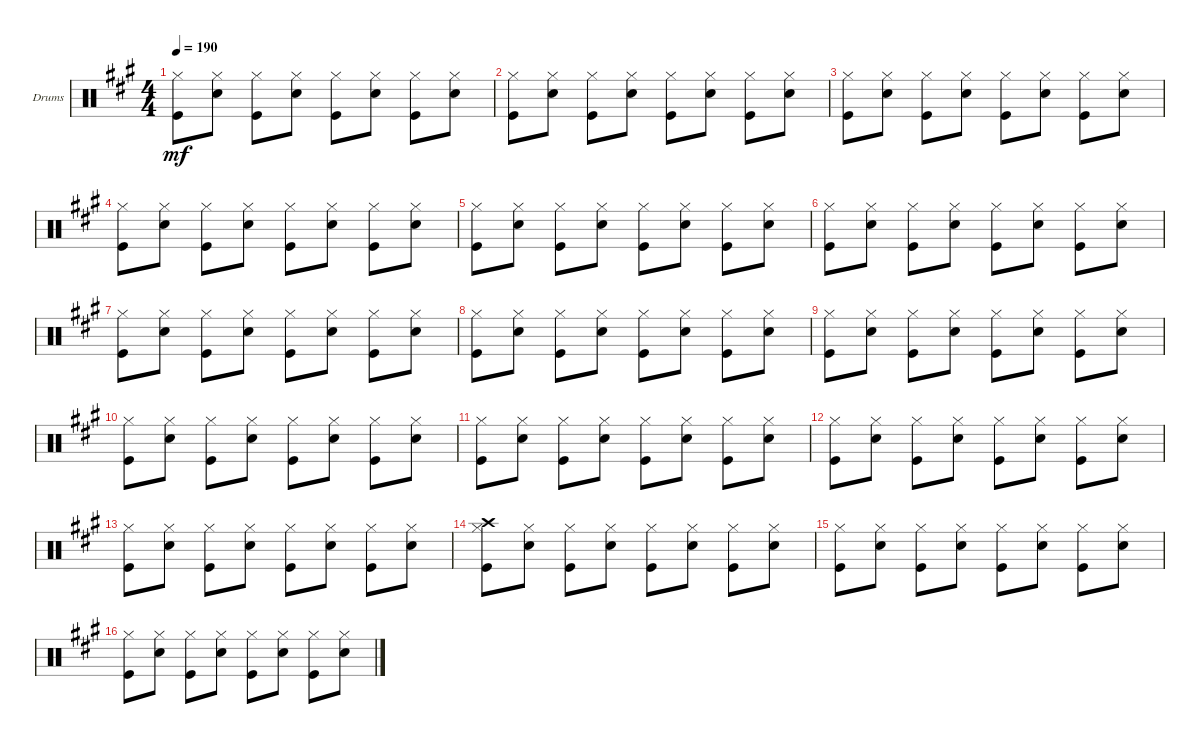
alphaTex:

\defaultSystemsLayout 4
\bracketExtendMode groupsimilarinstruments
\firstSystemTrackNameOrientation horizontal
\otherSystemsTrackNameOrientation horizontal
\track ("Drumkit" "Drums") {instrument percussion}
\staff {score}
\articulation defaults
\ts (4 4)
\tempo 190
\clef neutral
\ks f#minor
("Kick (hit)" "Hi-Hat (closed)").8{dy mf} ("Snare (hit) 2" "Hi-Hat (closed)").8 ("Kick (hit)" "Hi-Hat (closed)").8 ("Snare (hit) 2" "Hi-Hat (closed)").8 ("Kick (hit)" "Hi-Hat (closed)").8 ("Snare (hit) 2" "Hi-Hat (closed)").8 ("Kick (hit)" "Hi-Hat (closed)").8 ("Snare (hit) 2" "Hi-Hat (closed)").8 |
("Kick (hit)" "Hi-Hat (closed)").8 ("Snare (hit) 2" "Hi-Hat (closed)").8 ("Kick (hit)" "Hi-Hat (closed)").8 ("Snare (hit) 2" "Hi-Hat (closed)").8 ("Kick (hit)" "Hi-Hat (closed)").8 ("Snare (hit) 2" "Hi-Hat (closed)").8 ("Kick (hit)" "Hi-Hat (closed)").8 ("Snare (hit) 2" "Hi-Hat (closed)").8 |
("Kick (hit)" "Hi-Hat (closed)").8 ("Snare (hit) 2" "Hi-Hat (closed)").8 ("Kick (hit)" "Hi-Hat (closed)").8 ("Snare (hit) 2" "Hi-Hat (closed)").8 ("Kick (hit)" "Hi-Hat (closed)").8 ("Snare (hit) 2" "Hi-Hat (closed)").8 ("Kick (hit)" "Hi-Hat (closed)").8 ("Snare (hit) 2" "Hi-Hat (closed)").8 |
("Kick (hit)" "Hi-Hat (closed)").8 ("Snare (hit) 2" "Hi-Hat (closed)").8 ("Kick (hit)" "Hi-Hat (closed)").8 ("Snare (hit) 2" "Hi-Hat (closed)").8 ("Kick (hit)" "Hi-Hat (closed)").8 ("Snare (hit) 2" "Hi-Hat (closed)").8 ("Kick (hit)" "Hi-Hat (closed)").8 ("Snare (hit) 2" "Hi-Hat (closed)").8 |
("Kick (hit)" "Hi-Hat (closed)").8 ("Snare (hit) 2" "Hi-Hat (closed)").8 ("Kick (hit)" "Hi-Hat (closed)").8 ("Snare (hit) 2" "Hi-Hat (closed)").8 ("Kick (hit)" "Hi-Hat (closed)").8 ("Snare (hit) 2" "Hi-Hat (closed)").8 ("Kick (hit)" "Hi-Hat (closed)").8 ("Snare (hit) 2" "Hi-Hat (closed)").8 |
("Kick (hit)" "Hi-Hat (closed)").8 ("Snare (hit) 2" "Hi-Hat (closed)").8 ("Kick (hit)" "Hi-Hat (closed)").8 ("Snare (hit) 2" "Hi-Hat (closed)").8 ("Kick (hit)" "Hi-Hat (closed)").8 ("Snare (hit) 2" "Hi-Hat (closed)").8 ("Kick (hit)" "Hi-Hat (closed)").8 ("Snare (hit) 2" "Hi-Hat (closed)").8 |
("Kick (hit)" "Hi-Hat (closed)").8 ("Snare (hit) 2" "Hi-Hat (closed)").8 ("Kick (hit)" "Hi-Hat (closed)").8 ("Snare (hit) 2" "Hi-Hat (closed)").8 ("Kick (hit)" "Hi-Hat (closed)").8 ("Snare (hit) 2" "Hi-Hat (closed)").8 ("Kick (hit)" "Hi-Hat (closed)").8 ("Snare (hit) 2" "Hi-Hat (closed)").8 |
("Kick (hit)" "Hi-Hat (closed)").8 ("Snare (hit) 2" "Hi-Hat (closed)").8 ("Kick (hit)" "Hi-Hat (closed)").8 ("Snare (hit) 2" "Hi-Hat (closed)").8 ("Kick (hit)" "Hi-Hat (closed)").8 ("Snare (hit) 2" "Hi-Hat (closed)").8 ("Kick (hit)" "Hi-Hat (closed)").8 ("Snare (hit) 2" "Hi-Hat (closed)").8 |
("Kick (hit)" "Hi-Hat (closed)").8 ("Snare (hit) 2" "Hi-Hat (closed)").8 ("Kick (hit)" "Hi-Hat (closed)").8 ("Snare (hit) 2" "Hi-Hat (closed)").8 ("Kick (hit)" "Hi-Hat (closed)").8 ("Snare (hit) 2" "Hi-Hat (closed)").8 ("Kick (hit)" "Hi-Hat (closed)").8 ("Snare (hit) 2" "Hi-Hat (closed)").8 |
("Kick (hit)" "Hi-Hat (closed)").8 ("Snare (hit) 2" "Hi-Hat (closed)").8 ("Kick (hit)" "Hi-Hat (closed)").8 ("Snare (hit) 2" "Hi-Hat (closed)").8 ("Kick (hit)" "Hi-Hat (closed)").8 ("Snare (hit) 2" "Hi-Hat (closed)").8 ("Kick (hit)" "Hi-Hat (closed)").8 ("Snare (hit) 2" "Hi-Hat (closed)").8 |
("Kick (hit)" "Hi-Hat (closed)").8 ("Snare (hit) 2" "Hi-Hat (closed)").8 ("Kick (hit)" "Hi-Hat (closed)").8 ("Snare (hit) 2" "Hi-Hat (closed)").8 ("Kick (hit)" "Hi-Hat (closed)").8 ("Snare (hit) 2" "Hi-Hat (closed)").8 ("Kick (hit)" "Hi-Hat (closed)").8 ("Snare (hit) 2" "Hi-Hat (closed)").8 |
("Kick (hit)" "Hi-Hat (closed)").8 ("Snare (hit) 2" "Hi-Hat (closed)").8 ("Kick (hit)" "Hi-Hat (closed)").8 ("Snare (hit) 2" "Hi-Hat (closed)").8 ("Kick (hit)" "Hi-Hat (closed)").8 ("Snare (hit) 2" "Hi-Hat (closed)").8 ("Kick (hit)" "Hi-Hat (closed)").8 ("Snare (hit) 2" "Hi-Hat (closed)").8 |
("Kick (hit)" "Hi-Hat (closed)").8 ("Snare (hit) 2" "Hi-Hat (closed)").8 ("Kick (hit)" "Hi-Hat (closed)").8 ("Snare (hit) 2" "Hi-Hat (closed)").8 ("Kick (hit)" "Hi-Hat (closed)").8 ("Snare (hit) 2" "Hi-Hat (closed)").8 ("Kick (hit)" "Hi-Hat (closed)").8 ("Snare (hit) 2" "Hi-Hat (closed)").8 |
("Kick (hit)" "Hi-Hat (closed)" "Crash high (hit)").8 ("Snare (hit) 2" "Hi-Hat (closed)").8 ("Kick (hit)" "Hi-Hat (closed)").8 ("Snare (hit) 2" "Hi-Hat (closed)").8 ("Kick (hit)" "Hi-Hat (closed)").8 ("Snare (hit) 2" "Hi-Hat (closed)").8 ("Kick (hit)" "Hi-Hat (closed)").8 ("Snare (hit) 2" "Hi-Hat (closed)").8 |
("Kick (hit)" "Hi-Hat (closed)").8 ("Snare (hit) 2" "Hi-Hat (closed)").8 ("Kick (hit)" "Hi-Hat (closed)").8 ("Snare (hit) 2" "Hi-Hat (closed)").8 ("Kick (hit)" "Hi-Hat (closed)").8 ("Snare (hit) 2" "Hi-Hat (closed)").8 ("Kick (hit)" "Hi-Hat (closed)").8 ("Snare (hit) 2" "Hi-Hat (closed)").8 |
("Kick (hit)" "Hi-Hat (closed)").8 ("Snare (hit) 2" "Hi-Hat (closed)").8 ("Kick (hit)" "Hi-Hat (closed)").8 ("Snare (hit) 2" "Hi-Hat (closed)").8 ("Kick (hit)" "Hi-Hat (closed)").8 ("Snare (hit) 2" "Hi-Hat (closed)").8 ("Kick (hit)" "Hi-Hat (closed)").8 ("Snare (hit) 2" "Hi-Hat (closed)").8
